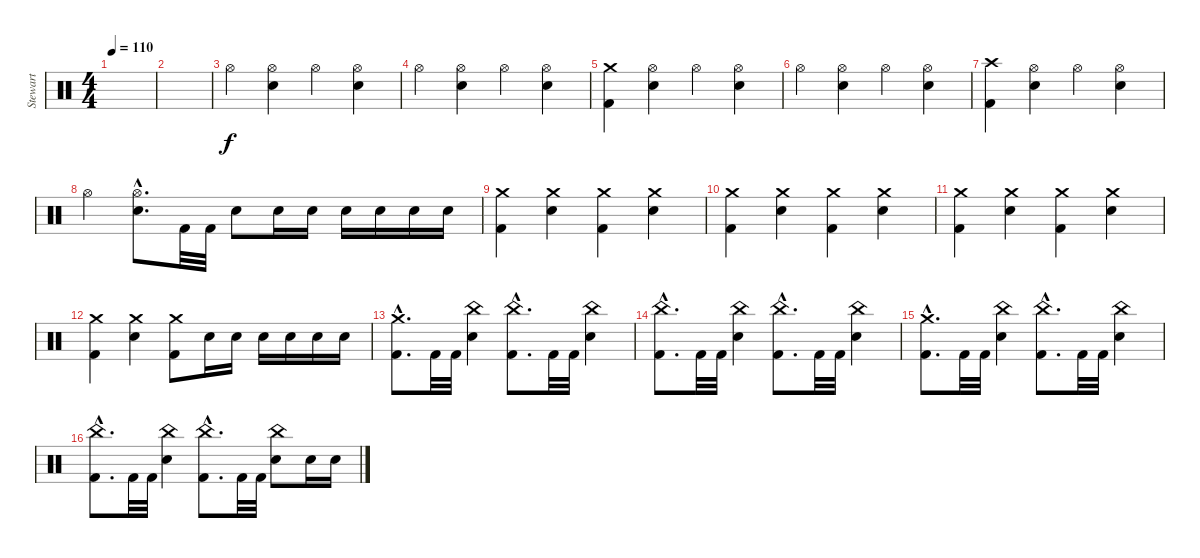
\track ("Stewart" "Stewart") {instrument percussion}
\staff {score}
\articulation defaults
\ts (4 4)
\tempo 110
\clef neutral
\ks c
|
|
"Hi-Hat (open)".4 ("Hi-Hat (open)" "Electric Snare (hit)").4 "Hi-Hat (open)".4 ("Hi-Hat (open)" "Electric Snare (hit)").4 |
"Hi-Hat (open)".4 ("Hi-Hat (open)" "Electric Snare (hit)").4 "Hi-Hat (open)".4 ("Hi-Hat (open)" "Electric Snare (hit)").4 |
("Crash medium (hit)" "Kick (hit) 2").4 ("Hi-Hat (open)" "Electric Snare (hit)").4 "Hi-Hat (open)".4 ("Hi-Hat (open)" "Electric Snare (hit)").4 |
"Hi-Hat (open)".4 ("Hi-Hat (open)" "Electric Snare (hit)").4 "Hi-Hat (open)".4 ("Hi-Hat (open)" "Electric Snare (hit)").4 |
("Crash high (hit)" "Kick (hit) 2").4 ("Hi-Hat (open)" "Electric Snare (hit)").4 "Hi-Hat (open)".4 ("Hi-Hat (open)" "Electric Snare (hit)").4 |
"Hi-Hat (open)".4 ("Hi-Hat (open)"{hac} "Electric Snare (hit)"{hac}).8{d} "Kick (hit) 2".32 "Kick (hit) 2".32 "Electric Snare (hit)".8 "Electric Snare (hit)".16 "Electric Snare (hit)".16 "Electric Snare (hit)".16 "Electric Snare (hit)".16 "Electric Snare (hit)".16 "Electric Snare (hit)".16 |
("Crash medium (hit)" "Kick (hit) 2").4 ("Crash medium (hit)" "Electric Snare (hit)").4 ("Crash medium (hit)" "Kick (hit) 2").4 ("Crash medium (hit)" "Electric Snare (hit)").4 |
("Crash medium (hit)" "Kick (hit) 2").4 ("Crash medium (hit)" "Electric Snare (hit)").4 ("Crash medium (hit)" "Kick (hit) 2").4 ("Crash medium (hit)" "Electric Snare (hit)").4 |
("Crash medium (hit)" "Kick (hit) 2").4 ("Crash medium (hit)" "Electric Snare (hit)").4 ("Crash medium (hit)" "Kick (hit) 2").4 ("Crash medium (hit)" "Electric Snare (hit)").4 |
("Crash medium (hit)" "Kick (hit) 2").4 ("Crash medium (hit)" "Electric Snare (hit)").4 ("Crash medium (hit)" "Kick (hit) 2").8 "Electric Snare (hit)".16 "Electric Snare (hit)".16 "Electric Snare (hit)".16 "Electric Snare (hit)".16 "Electric Snare (hit)".16 "Electric Snare (hit)".16 |
("Crash medium (hit)"{hac} "Kick (hit) 2"{hac}).8{d} "Kick (hit) 2".32 "Kick (hit) 2".32 ("China (hit)" "Electric Snare (hit)").4 ("China (hit)"{hac} "Kick (hit) 2"{hac}).8{d} "Kick (hit) 2".32 "Kick (hit) 2".32 ("China (hit)" "Electric Snare (hit)").4 |
("China (hit)"{hac} "Kick (hit) 2"{hac}).8{d} "Kick (hit) 2".32 "Kick (hit) 2".32 ("China (hit)" "Electric Snare (hit)").4 ("China (hit)"{hac} "Kick (hit) 2"{hac}).8{d} "Kick (hit) 2".32 "Kick (hit) 2".32 ("China (hit)" "Electric Snare (hit)").4 |
("Crash medium (hit)"{hac} "Kick (hit) 2"{hac}).8{d} "Kick (hit) 2".32 "Kick (hit) 2".32 ("China (hit)" "Electric Snare (hit)").4 ("China (hit)"{hac} "Kick (hit) 2"{hac}).8{d} "Kick (hit) 2".32 "Kick (hit) 2".32 ("China (hit)" "Electric Snare (hit)").4 |
("China (hit)"{hac} "Kick (hit) 2"{hac}).8{d} "Kick (hit) 2".32 "Kick (hit) 2".32 ("China (hit)" "Electric Snare (hit)").4 ("China (hit)"{hac} "Kick (hit) 2"{hac}).8{d} "Kick (hit) 2".32 "Kick (hit) 2".32 ("China (hit)" "Electric Snare (hit)").8 "Electric Snare (hit)".16 "Electric Snare (hit)".16
